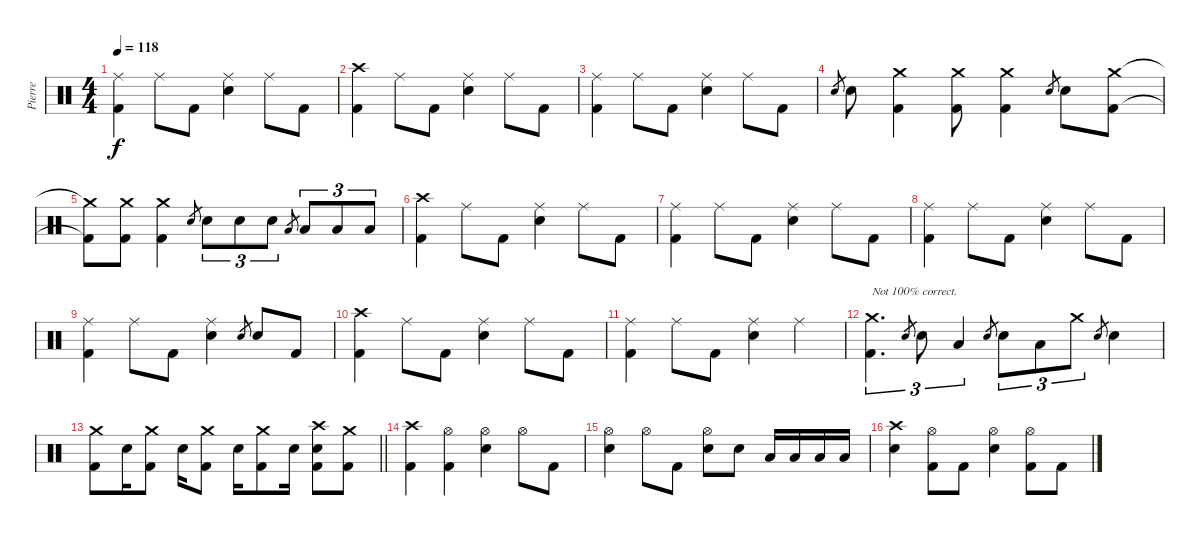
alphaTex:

\track ("Pierre" "Pierre") {instrument percussion}
\staff {score}
\articulation defaults
\ts (4 4)
\tempo 118
\clef neutral
\ks c
("Ride (middle)" "Kick (hit) 2").4{dy f} "Ride (middle)".8 "Kick (hit) 2".8 ("Ride (middle)" "Snare (hit) 2").4 "Ride (middle)".8 "Kick (hit) 2".8 |
("Crash high (hit)" "Kick (hit) 2").4 "Ride (middle)".8 "Kick (hit) 2".8 ("Ride (middle)" "Snare (hit) 2").4 "Ride (middle)".8 "Kick (hit) 2".8 |
("Ride (middle)" "Kick (hit) 2").4 "Ride (middle)".8 "Kick (hit) 2".8 ("Ride (middle)" "Snare (hit) 2").4 "Ride (middle)".8 "Kick (hit) 2".8 |
"Snare (hit) 2".8{gr} "Snare (hit) 2".8 ("Crash medium (hit)" "Kick (hit) 2").4 ("Crash medium (hit)" "Kick (hit) 2").8 ("Crash medium (hit)" "Kick (hit) 2").4 "Snare (hit) 2".8{gr} "Snare (hit) 2".8 ("Crash medium (hit)" "Kick (hit) 2").8 |
("Crash medium (hit)"{t} "Kick (hit) 2"{t}).8 ("Crash medium (hit)" "Kick (hit) 2").8 ("Crash medium (hit)" "Kick (hit) 2").4 "Snare (hit) 2".8{gr} "Snare (hit) 2".8{tu (3 2)} "Snare (hit) 2".8{tu (3 2)} "Snare (hit) 2".8{tu (3 2)} "Low Tom (hit)".8{gr} "Low Tom (hit)".8{tu (3 2)} "Low Floor Tom (hit)".8{tu (3 2)} "Low Floor Tom (hit)".8{tu (3 2)} |
("Crash high (hit)" "Kick (hit) 2").4 "Ride (middle)".8 "Kick (hit) 2".8 ("Ride (middle)" "Snare (hit) 2").4 "Ride (middle)".8 "Kick (hit) 2".8 |
("Ride (middle)" "Kick (hit) 2").4 "Ride (middle)".8 "Kick (hit) 2".8 ("Ride (middle)" "Snare (hit) 2").4 "Ride (middle)".8 "Kick (hit) 2".8 |
("Ride (middle)" "Kick (hit) 2").4 "Ride (middle)".8 "Kick (hit) 2".8 ("Ride (middle)" "Snare (hit) 2").4 "Ride (middle)".8 "Kick (hit) 2".8 |
("Ride (middle)" "Kick (hit) 2").4 "Ride (middle)".8 "Kick (hit) 2".8 ("Ride (middle)" "Snare (hit) 2").4 "Snare (hit) 2".8{gr} "Snare (hit) 2".8 "Kick (hit) 2".8 |
("Crash high (hit)" "Kick (hit) 2").4 "Ride (middle)".8 "Kick (hit) 2".8 ("Ride (middle)" "Snare (hit) 2").4 "Ride (middle)".8 "Kick (hit) 2".8 |
("Ride (middle)" "Kick (hit) 2").4 "Ride (middle)".8 "Kick (hit) 2".8 ("Ride (middle)" "Snare (hit) 2").4 "Ride (middle)".4 |
("Crash medium (hit)" "Kick (hit) 2").4{d tu (3 2) txt "Not 100% correct."} "Snare (hit) 2".8{gr} "Snare (hit) 2".8{tu (3 2)} "Low Tom (hit)".4{tu (3 2)} "Snare (hit) 2".8{gr} "Snare (hit) 2".8{tu (3 2)} "Low Tom (hit)".8{tu (3 2)} "Crash medium (hit)".8{tu (3 2)} "Snare (hit) 2".8{gr} "Snare (hit) 2".4 |
\barLineRight lightlight
("Crash medium (hit)" "Kick (hit) 2").8 "Snare (hit) 2".16 ("Crash medium (hit)" "Kick (hit) 2").8 "Snare (hit) 2".16 ("Crash medium (hit)" "Kick (hit) 2").8 "Snare (hit) 2".16 ("Crash medium (hit)" "Kick (hit) 2").8 "Snare (hit) 2".16 ("Crash high (hit)" "Snare (hit) 2" "Kick (hit) 2").8 ("Crash medium (hit)" "Kick (hit) 2").8 |
("Crash high (hit)" "Kick (hit) 2").4 ("Hi-Hat (open)" "Kick (hit) 2").4 ("Hi-Hat (open)" "Snare (hit) 2").4 "Hi-Hat (open)".8 "Kick (hit) 2".8 |
("Hi-Hat (open)" "Snare (hit) 2").4 "Hi-Hat (open)".8 "Kick (hit) 2".8 ("Hi-Hat (open)" "Snare (hit) 2").8 "Snare (hit) 2".8 "Low Floor Tom (hit)".16 "Low Floor Tom (hit)".16 "Low Floor Tom (hit)".16 "Low Floor Tom (hit)".16 |
("Crash high (hit)" "Snare (hit) 2").4 ("Hi-Hat (open)" "Kick (hit) 2").8 "Kick (hit) 2".8 ("Hi-Hat (open)" "Snare (hit) 2").4 ("Hi-Hat (open)" "Kick (hit) 2").8 "Kick (hit) 2".8
